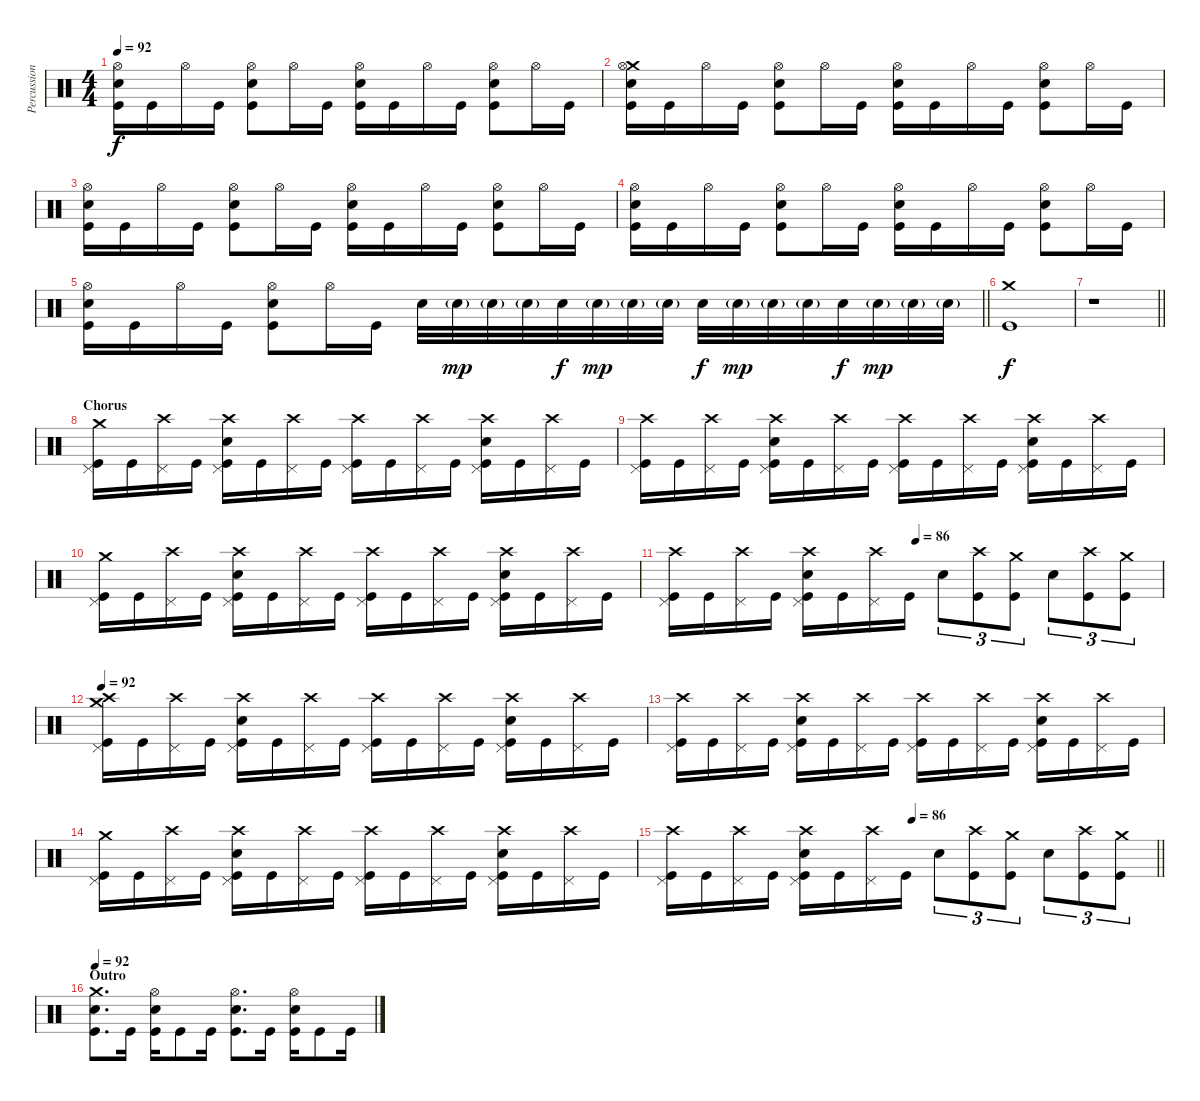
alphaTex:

\track ("Percussion" "Percussion") {instrument percussion}
\staff {score}
\articulation defaults
\ts (4 4)
\tempo 92
\clef neutral
\ks c
("Hi-Hat (open)" "Electric Snare (hit)" "Kick (hit)").16{dy f} "Kick (hit)".16 "Hi-Hat (open)".16 "Kick (hit)".16 ("Hi-Hat (open)" "Electric Snare (hit)" "Kick (hit)").8 "Hi-Hat (open)".16 "Kick (hit)".16 ("Hi-Hat (open)" "Electric Snare (hit)" "Kick (hit)").16 "Kick (hit)".16 "Hi-Hat (open)".16 "Kick (hit)".16 ("Hi-Hat (open)" "Electric Snare (hit)" "Kick (hit)").8 "Hi-Hat (open)".16 "Kick (hit)".16 |
("Crash medium (hit)" "Hi-Hat (open)" "Electric Snare (hit)" "Kick (hit)").16 "Kick (hit)".16 "Hi-Hat (open)".16 "Kick (hit)".16 ("Hi-Hat (open)" "Electric Snare (hit)" "Kick (hit)").8 "Hi-Hat (open)".16 "Kick (hit)".16 ("Hi-Hat (open)" "Electric Snare (hit)" "Kick (hit)").16 "Kick (hit)".16 "Hi-Hat (open)".16 "Kick (hit)".16 ("Hi-Hat (open)" "Electric Snare (hit)" "Kick (hit)").8 "Hi-Hat (open)".16 "Kick (hit)".16 |
("Hi-Hat (open)" "Electric Snare (hit)" "Kick (hit)").16 "Kick (hit)".16 "Hi-Hat (open)".16 "Kick (hit)".16 ("Hi-Hat (open)" "Electric Snare (hit)" "Kick (hit)").8 "Hi-Hat (open)".16 "Kick (hit)".16 ("Hi-Hat (open)" "Electric Snare (hit)" "Kick (hit)").16 "Kick (hit)".16 "Hi-Hat (open)".16 "Kick (hit)".16 ("Hi-Hat (open)" "Electric Snare (hit)" "Kick (hit)").8 "Hi-Hat (open)".16 "Kick (hit)".16 |
("Hi-Hat (open)" "Electric Snare (hit)" "Kick (hit)").16 "Kick (hit)".16 "Hi-Hat (open)".16 "Kick (hit)".16 ("Hi-Hat (open)" "Electric Snare (hit)" "Kick (hit)").8 "Hi-Hat (open)".16 "Kick (hit)".16 ("Hi-Hat (open)" "Electric Snare (hit)" "Kick (hit)").16 "Kick (hit)".16 "Hi-Hat (open)".16 "Kick (hit)".16 ("Hi-Hat (open)" "Electric Snare (hit)" "Kick (hit)").8 "Hi-Hat (open)".16 "Kick (hit)".16 |
\barLineRight lightlight
("Hi-Hat (open)" "Electric Snare (hit)" "Kick (hit)").16 "Kick (hit)".16 "Hi-Hat (open)".16 "Kick (hit)".16 ("Hi-Hat (open)" "Electric Snare (hit)" "Kick (hit)").8 "Hi-Hat (open)".16 "Kick (hit)".16 "Electric Snare (hit)".32 "Electric Snare (hit)"{g}.32{dy mp} "Electric Snare (hit)"{g}.32 "Electric Snare (hit)"{g}.32 "Electric Snare (hit)".32{dy f} "Electric Snare (hit)"{g}.32{dy mp} "Electric Snare (hit)"{g}.32 "Electric Snare (hit)"{g}.32 "Electric Snare (hit)".32{dy f} "Electric Snare (hit)"{g}.32{dy mp} "Electric Snare (hit)"{g}.32 "Electric Snare (hit)"{g}.32 "Electric Snare (hit)".32{dy f} "Electric Snare (hit)"{g}.32{dy mp} "Electric Snare (hit)"{g}.32 "Electric Snare (hit)"{g}.32 |
\section ("" "")
("Crash medium (hit)" "Kick (hit)").1{dy f} |
\barLineRight lightlight
r.1 |
\section ("" "Chorus")
("Crash medium (hit)" "Pedal Hi-Hat (hit)" "Kick (hit)").16 "Kick (hit)".16 ("Crash high (hit)" "Pedal Hi-Hat (hit)").16 "Kick (hit)".16 ("Crash high (hit)" "Pedal Hi-Hat (hit)" "Electric Snare (hit)" "Kick (hit)").16 "Kick (hit)".16 ("Crash high (hit)" "Pedal Hi-Hat (hit)").16 "Kick (hit)".16 ("Crash high (hit)" "Pedal Hi-Hat (hit)" "Kick (hit)").16 "Kick (hit)".16 ("Crash high (hit)" "Pedal Hi-Hat (hit)").16 "Kick (hit)".16 ("Crash high (hit)" "Pedal Hi-Hat (hit)" "Electric Snare (hit)" "Kick (hit)").16 "Kick (hit)".16 ("Crash high (hit)" "Pedal Hi-Hat (hit)").16 "Kick (hit)".16 |
("Crash high (hit)" "Pedal Hi-Hat (hit)" "Kick (hit)").16 "Kick (hit)".16 ("Crash high (hit)" "Pedal Hi-Hat (hit)").16 "Kick (hit)".16 ("Crash high (hit)" "Pedal Hi-Hat (hit)" "Electric Snare (hit)" "Kick (hit)").16 "Kick (hit)".16 ("Crash high (hit)" "Pedal Hi-Hat (hit)").16 "Kick (hit)".16 ("Crash high (hit)" "Pedal Hi-Hat (hit)" "Kick (hit)").16 "Kick (hit)".16 ("Crash high (hit)" "Pedal Hi-Hat (hit)").16 "Kick (hit)".16 ("Crash high (hit)" "Pedal Hi-Hat (hit)" "Electric Snare (hit)" "Kick (hit)").16 "Kick (hit)".16 ("Crash high (hit)" "Pedal Hi-Hat (hit)").16 "Kick (hit)".16 |
("Crash medium (hit)" "Pedal Hi-Hat (hit)" "Kick (hit)").16 "Kick (hit)".16 ("Crash high (hit)" "Pedal Hi-Hat (hit)").16 "Kick (hit)".16 ("Crash high (hit)" "Pedal Hi-Hat (hit)" "Electric Snare (hit)" "Kick (hit)").16 "Kick (hit)".16 ("Crash high (hit)" "Pedal Hi-Hat (hit)").16 "Kick (hit)".16 ("Crash high (hit)" "Pedal Hi-Hat (hit)" "Kick (hit)").16 "Kick (hit)".16 ("Crash high (hit)" "Pedal Hi-Hat (hit)").16 "Kick (hit)".16 ("Crash high (hit)" "Pedal Hi-Hat (hit)" "Electric Snare (hit)" "Kick (hit)").16 "Kick (hit)".16 ("Crash high (hit)" "Pedal Hi-Hat (hit)").16 "Kick (hit)".16 |
\tempo (86 0.5)
("Crash high (hit)" "Pedal Hi-Hat (hit)" "Kick (hit)").16 "Kick (hit)".16 ("Crash high (hit)" "Pedal Hi-Hat (hit)").16 "Kick (hit)".16 ("Crash high (hit)" "Pedal Hi-Hat (hit)" "Electric Snare (hit)" "Kick (hit)").16 "Kick (hit)".16 ("Crash high (hit)" "Pedal Hi-Hat (hit)").16 "Kick (hit)".16 "Electric Snare (hit)".8{tu (3 2)} ("Crash high (hit)" "Kick (hit)").8{tu (3 2)} ("Crash medium (hit)" "Kick (hit)").8{tu (3 2)} "Electric Snare (hit)".8{tu (3 2)} ("Crash high (hit)" "Kick (hit)").8{tu (3 2)} ("Crash medium (hit)" "Kick (hit)").8{tu (3 2)} |
\tempo 92
("Crash high (hit)" "Crash medium (hit)" "Pedal Hi-Hat (hit)" "Kick (hit)").16 "Kick (hit)".16 ("Crash high (hit)" "Pedal Hi-Hat (hit)").16 "Kick (hit)".16 ("Crash high (hit)" "Pedal Hi-Hat (hit)" "Electric Snare (hit)" "Kick (hit)").16 "Kick (hit)".16 ("Crash high (hit)" "Pedal Hi-Hat (hit)").16 "Kick (hit)".16 ("Crash high (hit)" "Pedal Hi-Hat (hit)" "Kick (hit)").16 "Kick (hit)".16 ("Crash high (hit)" "Pedal Hi-Hat (hit)").16 "Kick (hit)".16 ("Crash high (hit)" "Pedal Hi-Hat (hit)" "Electric Snare (hit)" "Kick (hit)").16 "Kick (hit)".16 ("Crash high (hit)" "Pedal Hi-Hat (hit)").16 "Kick (hit)".16 |
("Crash high (hit)" "Pedal Hi-Hat (hit)" "Kick (hit)").16 "Kick (hit)".16 ("Crash high (hit)" "Pedal Hi-Hat (hit)").16 "Kick (hit)".16 ("Crash high (hit)" "Pedal Hi-Hat (hit)" "Electric Snare (hit)" "Kick (hit)").16 "Kick (hit)".16 ("Crash high (hit)" "Pedal Hi-Hat (hit)").16 "Kick (hit)".16 ("Crash high (hit)" "Pedal Hi-Hat (hit)" "Kick (hit)").16 "Kick (hit)".16 ("Crash high (hit)" "Pedal Hi-Hat (hit)").16 "Kick (hit)".16 ("Crash high (hit)" "Pedal Hi-Hat (hit)" "Electric Snare (hit)" "Kick (hit)").16 "Kick (hit)".16 ("Crash high (hit)" "Pedal Hi-Hat (hit)").16 "Kick (hit)".16 |
("Crash medium (hit)" "Pedal Hi-Hat (hit)" "Kick (hit)").16 "Kick (hit)".16 ("Crash high (hit)" "Pedal Hi-Hat (hit)").16 "Kick (hit)".16 ("Crash high (hit)" "Pedal Hi-Hat (hit)" "Electric Snare (hit)" "Kick (hit)").16 "Kick (hit)".16 ("Crash high (hit)" "Pedal Hi-Hat (hit)").16 "Kick (hit)".16 ("Crash high (hit)" "Pedal Hi-Hat (hit)" "Kick (hit)").16 "Kick (hit)".16 ("Crash high (hit)" "Pedal Hi-Hat (hit)").16 "Kick (hit)".16 ("Crash high (hit)" "Pedal Hi-Hat (hit)" "Electric Snare (hit)" "Kick (hit)").16 "Kick (hit)".16 ("Crash high (hit)" "Pedal Hi-Hat (hit)").16 "Kick (hit)".16 |
\tempo (86 0.5)
\barLineRight lightlight
("Crash high (hit)" "Pedal Hi-Hat (hit)" "Kick (hit)").16 "Kick (hit)".16 ("Crash high (hit)" "Pedal Hi-Hat (hit)").16 "Kick (hit)".16 ("Crash high (hit)" "Pedal Hi-Hat (hit)" "Electric Snare (hit)" "Kick (hit)").16 "Kick (hit)".16 ("Crash high (hit)" "Pedal Hi-Hat (hit)").16 "Kick (hit)".16 "Electric Snare (hit)".8{tu (3 2)} ("Crash high (hit)" "Kick (hit)").8{tu (3 2)} ("Crash medium (hit)" "Kick (hit)").8{tu (3 2)} "Electric Snare (hit)".8{tu (3 2)} ("Crash high (hit)" "Kick (hit)").8{tu (3 2)} ("Crash medium (hit)" "Kick (hit)").8{tu (3 2)} |
\section ("" "Outro")
\tempo 92
("Crash medium (hit)" "Electric Snare (hit)" "Kick (hit)").8{d} "Kick (hit)".16 ("Hi-Hat (open)" "Electric Snare (hit)" "Kick (hit)").16 "Kick (hit)".8 "Kick (hit)".16 ("Hi-Hat (open)" "Electric Snare (hit)" "Kick (hit)").8{d} "Kick (hit)".16 ("Hi-Hat (open)" "Electric Snare (hit)" "Kick (hit)").16 "Kick (hit)".8 "Kick (hit)".16
